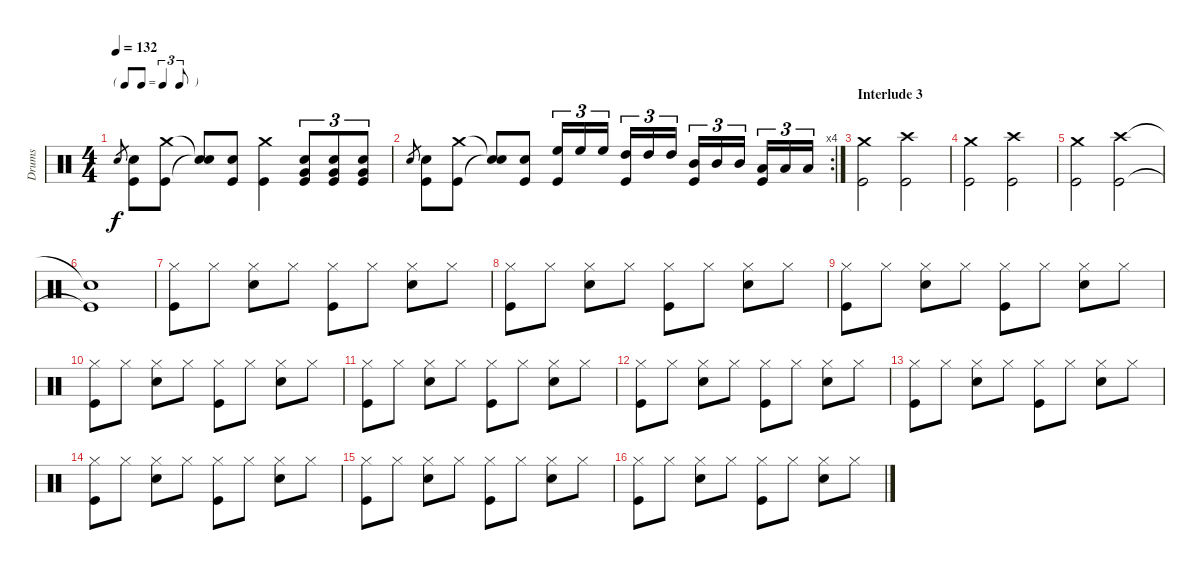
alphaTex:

\track ("Drums" "Drums") {instrument percussion}
\staff {score}
\articulation defaults
\ts (4 4)
\tf triplet8th
\tempo 132
\clef neutral
\ks c "Snare (hit) 2".8{gr dy f}
("Snare (hit) 2" "Kick (hit)").8 ("Crash medium (hit)" "Kick (hit)").8 ("Snare (hit)"{t} "Snare (hit)"{t}).8 ("Snare (hit) 2" "Kick (hit)").8 ("Crash medium (hit)" "Kick (hit)").4 ("Very Low Tom (hit)" "Snare (hit) 2" "Kick (hit)").8{tu (3 2)} ("Very Low Tom (hit)" "Snare (hit) 2" "Kick (hit)").8{tu (3 2)} ("Very Low Tom (hit)" "Snare (hit) 2" "Kick (hit)").8{tu (3 2)} |
\rc 4 "Snare (hit) 2".8{gr}
("Snare (hit) 2" "Kick (hit)").8 ("Crash medium (hit)" "Kick (hit)").8 ("Snare (hit)"{t} "Snare (hit)"{t}).8 ("Snare (hit) 2" "Kick (hit)").8 ("High Floor Tom (hit)" "Kick (hit)").16{tu (3 2)} "High Floor Tom (hit)".16{tu (3 2)} "High Floor Tom (hit)".16{tu (3 2)} ("High Tom (hit)" "Kick (hit)").16{tu (3 2)} "High Tom (hit)".16{tu (3 2)} "High Tom (hit)".16{tu (3 2)} ("Mid Tom (hit)" "Kick (hit)").16{tu (3 2)} "Mid Tom (hit)".16{tu (3 2)} "Mid Tom (hit)".16{tu (3 2)} ("Low Tom (hit)" "Kick (hit)").16{tu (3 2)} "Low Tom (hit)".16{tu (3 2)} "Low Tom (hit)".16{tu (3 2)} |
\section ("" "Interlude 3")
("Crash medium (hit)" "Kick (hit)").2 ("Crash high (hit)" "Kick (hit)").2 |
("Crash medium (hit)" "Kick (hit)").2 ("Crash high (hit)" "Kick (hit)").2 |
("Crash medium (hit)" "Kick (hit)").2 ("Crash high (hit)" "Kick (hit)").2 |
("Snare (hit)"{t} "Kick (hit)"{t}).1 |
("Hi-Hat (closed)" "Kick (hit)").8 "Hi-Hat (closed)".8 ("Hi-Hat (closed)" "Snare (hit) 2").8 "Hi-Hat (closed)".8 ("Hi-Hat (closed)" "Kick (hit)").8 "Hi-Hat (closed)".8 ("Hi-Hat (closed)" "Snare (hit) 2").8 "Hi-Hat (closed)".8 |
("Hi-Hat (closed)" "Kick (hit)").8 "Hi-Hat (closed)".8 ("Hi-Hat (closed)" "Snare (hit) 2").8 "Hi-Hat (closed)".8 ("Hi-Hat (closed)" "Kick (hit)").8 "Hi-Hat (closed)".8 ("Hi-Hat (closed)" "Snare (hit) 2").8 "Hi-Hat (closed)".8 |
("Hi-Hat (closed)" "Kick (hit)").8 "Hi-Hat (closed)".8 ("Hi-Hat (closed)" "Snare (hit) 2").8 "Hi-Hat (closed)".8 ("Hi-Hat (closed)" "Kick (hit)").8 "Hi-Hat (closed)".8 ("Hi-Hat (closed)" "Snare (hit) 2").8 "Hi-Hat (closed)".8 |
("Hi-Hat (closed)" "Kick (hit)").8 "Hi-Hat (closed)".8 ("Hi-Hat (closed)" "Snare (hit) 2").8 "Hi-Hat (closed)".8 ("Hi-Hat (closed)" "Kick (hit)").8 "Hi-Hat (closed)".8 ("Hi-Hat (closed)" "Snare (hit) 2").8 "Hi-Hat (closed)".8 |
("Hi-Hat (closed)" "Kick (hit)").8 "Hi-Hat (closed)".8 ("Hi-Hat (closed)" "Snare (hit) 2").8 "Hi-Hat (closed)".8 ("Hi-Hat (closed)" "Kick (hit)").8 "Hi-Hat (closed)".8 ("Hi-Hat (closed)" "Snare (hit) 2").8 "Hi-Hat (closed)".8 |
("Hi-Hat (closed)" "Kick (hit)").8 "Hi-Hat (closed)".8 ("Hi-Hat (closed)" "Snare (hit) 2").8 "Hi-Hat (closed)".8 ("Hi-Hat (closed)" "Kick (hit)").8 "Hi-Hat (closed)".8 ("Hi-Hat (closed)" "Snare (hit) 2").8 "Hi-Hat (closed)".8 |
("Hi-Hat (closed)" "Kick (hit)").8 "Hi-Hat (closed)".8 ("Hi-Hat (closed)" "Snare (hit) 2").8 "Hi-Hat (closed)".8 ("Hi-Hat (closed)" "Kick (hit)").8 "Hi-Hat (closed)".8 ("Hi-Hat (closed)" "Snare (hit) 2").8 "Hi-Hat (closed)".8 |
("Hi-Hat (closed)" "Kick (hit)").8 "Hi-Hat (closed)".8 ("Hi-Hat (closed)" "Snare (hit) 2").8 "Hi-Hat (closed)".8 ("Hi-Hat (closed)" "Kick (hit)").8 "Hi-Hat (closed)".8 ("Hi-Hat (closed)" "Snare (hit) 2").8 "Hi-Hat (closed)".8 |
("Hi-Hat (closed)" "Kick (hit)").8 "Hi-Hat (closed)".8 ("Hi-Hat (closed)" "Snare (hit) 2").8 "Hi-Hat (closed)".8 ("Hi-Hat (closed)" "Kick (hit)").8 "Hi-Hat (closed)".8 ("Hi-Hat (closed)" "Snare (hit) 2").8 "Hi-Hat (closed)".8 |
("Hi-Hat (closed)" "Kick (hit)").8 "Hi-Hat (closed)".8 ("Hi-Hat (closed)" "Snare (hit) 2").8 "Hi-Hat (closed)".8 ("Hi-Hat (closed)" "Kick (hit)").8 "Hi-Hat (closed)".8 ("Hi-Hat (closed)" "Snare (hit) 2").8 "Hi-Hat (closed)".8
